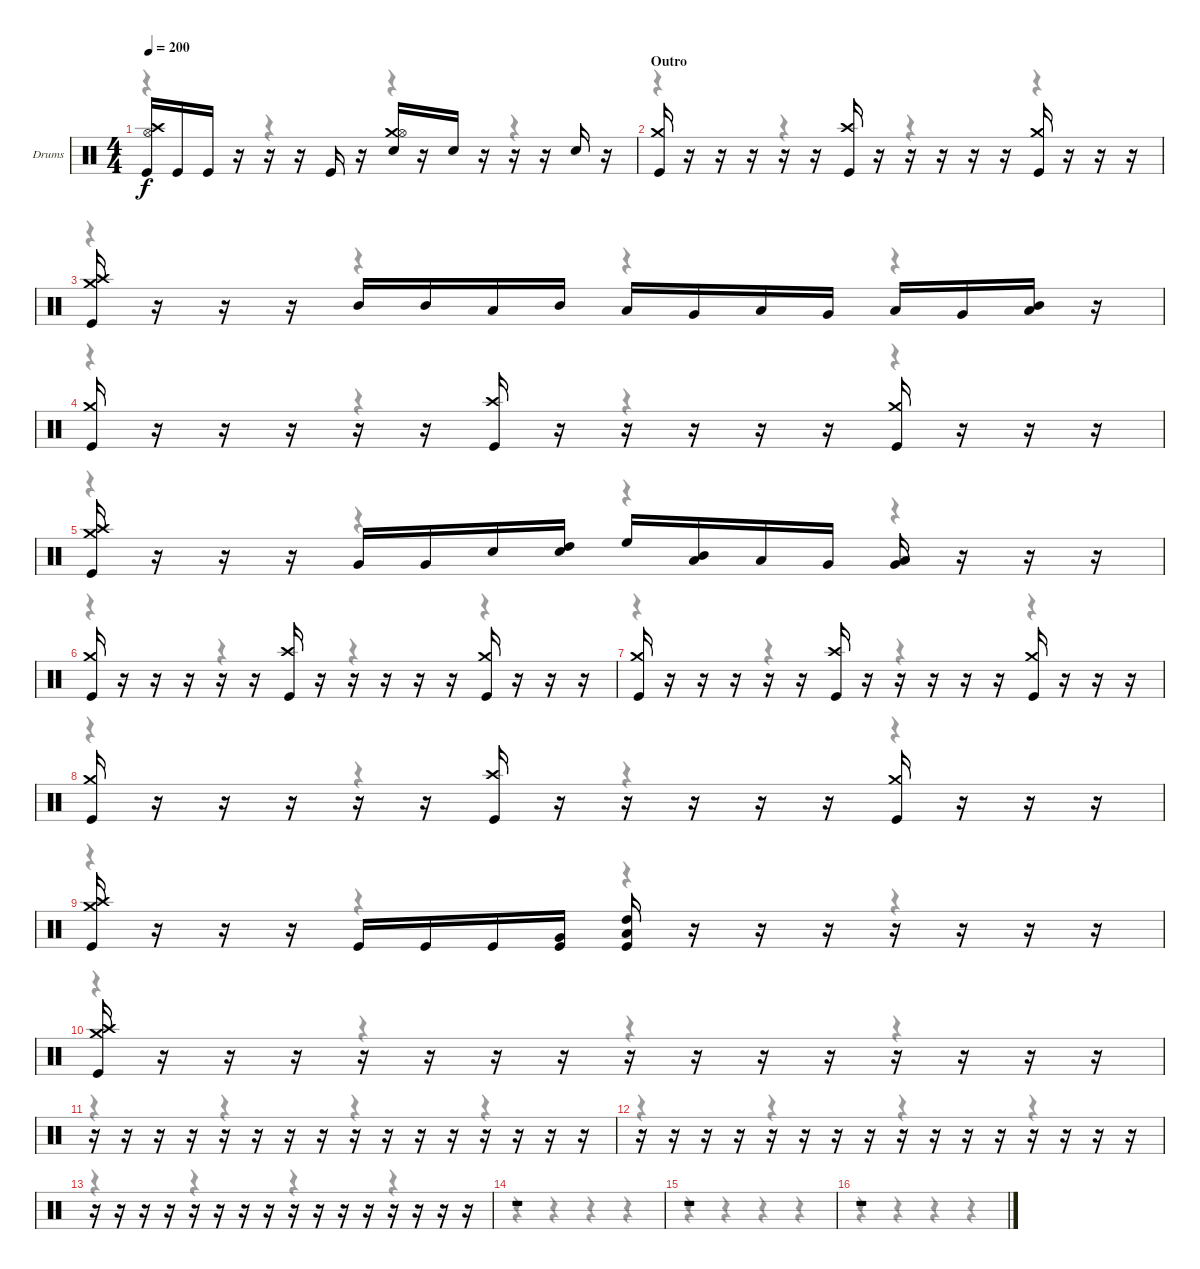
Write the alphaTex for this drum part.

\bracketExtendMode nobrackets
\firstSystemTrackNameOrientation horizontal
\otherSystemsTrackNameOrientation horizontal
\track ("Drumkit" "Drums") {instrument percussion}
\staff {score}
\articulation defaults
\voice
\ts (4 4)
\tempo 200
\clef neutral
\ks c
("Kick (hit)" "Crash high (hit)" "Hi-Hat (open)").16{dy f} "Kick (hit)".16 "Kick (hit)".16 r.16 r.16 r.16 "Kick (hit)".16 r.16 ("Crash medium (hit)" "Snare (hit) 2" "Hi-Hat (open)").16 r.16 "Snare (hit) 2".16 r.16 r.16 r.16 "Snare (hit) 2".16 r.16 |
\section ("" "Outro")
("Kick (hit)" "Crash medium (hit)").16 r.16 r.16 r.16 r.16 r.16 ("Kick (hit)" "Crash high (hit)").16 r.16 r.16 r.16 r.16 r.16 ("Kick (hit)" "Crash medium (hit)").16 r.16 r.16 r.16 |
("Kick (hit)" "Crash medium (hit)" "Crash high (hit)").16 r.16 r.16 r.16 "Mid Tom (hit)".16 "Mid Tom (hit)".16 "Low Tom (hit)".16 "Mid Tom (hit)".16 "Low Tom (hit)".16 "Very Low Tom (hit)".16 "Low Tom (hit)".16 "Very Low Tom (hit)".16 "Low Tom (hit)".16 "Very Low Tom (hit)".16 ("Mid Tom (hit)" "Low Tom (hit)").16 r.16 |
("Kick (hit)" "Crash medium (hit)").16 r.16 r.16 r.16 r.16 r.16 ("Kick (hit)" "Crash high (hit)").16 r.16 r.16 r.16 r.16 r.16 ("Kick (hit)" "Crash medium (hit)").16 r.16 r.16 r.16 |
("Kick (hit)" "Crash medium (hit)" "Crash high (hit)").16 r.16 r.16 r.16 "Very Low Tom (hit)".16 "Very Low Tom (hit)".16 "Snare (hit) 2".16 ("Snare (hit) 2" "High Tom (hit)").16 "High Floor Tom (hit)".16 ("Mid Tom (hit)" "Low Tom (hit)").16 "Low Tom (hit)".16 "Very Low Tom (hit)".16 ("Low Tom (hit)" "Very Low Tom (hit)").16 r.16 r.16 r.16 |
("Kick (hit)" "Crash medium (hit)").16 r.16 r.16 r.16 r.16 r.16 ("Kick (hit)" "Crash high (hit)").16 r.16 r.16 r.16 r.16 r.16 ("Kick (hit)" "Crash medium (hit)").16 r.16 r.16 r.16 |
("Kick (hit)" "Crash medium (hit)").16 r.16 r.16 r.16 r.16 r.16 ("Kick (hit)" "Crash high (hit)").16 r.16 r.16 r.16 r.16 r.16 ("Kick (hit)" "Crash medium (hit)").16 r.16 r.16 r.16 |
("Kick (hit)" "Crash medium (hit)").16 r.16 r.16 r.16 r.16 r.16 ("Kick (hit)" "Crash high (hit)").16 r.16 r.16 r.16 r.16 r.16 ("Kick (hit)" "Crash medium (hit)").16 r.16 r.16 r.16 |
("Kick (hit)" "Crash medium (hit)" "Crash high (hit)").16 r.16 r.16 r.16 "Kick (hit)".16 "Kick (hit)".16 "Kick (hit)".16 ("Kick (hit)" "Very Low Tom (hit)").16 ("Kick (hit)" "Low Tom (hit)" "High Tom (hit)").16 r.16 r.16 r.16 r.16 r.16 r.16 r.16 |
("Kick (hit)" "Crash high (hit)" "Crash medium (hit)").16 r.16 r.16 r.16 r.16 r.16 r.16 r.16 r.16 r.16 r.16 r.16 r.16 r.16 r.16 r.16 |
r.16 r.16 r.16 r.16 r.16 r.16 r.16 r.16 r.16 r.16 r.16 r.16 r.16 r.16 r.16 r.16 |
r.16 r.16 r.16 r.16 r.16 r.16 r.16 r.16 r.16 r.16 r.16 r.16 r.16 r.16 r.16 r.16 |
r.16 r.16 r.16 r.16 r.16 r.16 r.16 r.16 r.16 r.16 r.16 r.16 r.16 r.16 r.16 r.16 |
r.1 |
r.1 |
r.1
\voice
\clef neutral
\ottava regular
\simile none
\ks c
r.4{dy mf} r.4 r.4 r.4 |
r.4 r.4 r.4 r.4 |
r.4 r.4 r.4 r.4 |
r.4 r.4 r.4 r.4 |
r.4 r.4 r.4 r.4 |
r.4 r.4 r.4 r.4 |
r.4 r.4 r.4 r.4 |
r.4 r.4 r.4 r.4 |
r.4 r.4 r.4 r.4 |
r.4 r.4 r.4 r.4 |
r.4 r.4 r.4 r.4 |
r.4 r.4 r.4 r.4 |
r.4 r.4 r.4 r.4 |
r.4 r.4 r.4 r.4 |
r.4 r.4 r.4 r.4 |
r.4 r.4 r.4 r.4
